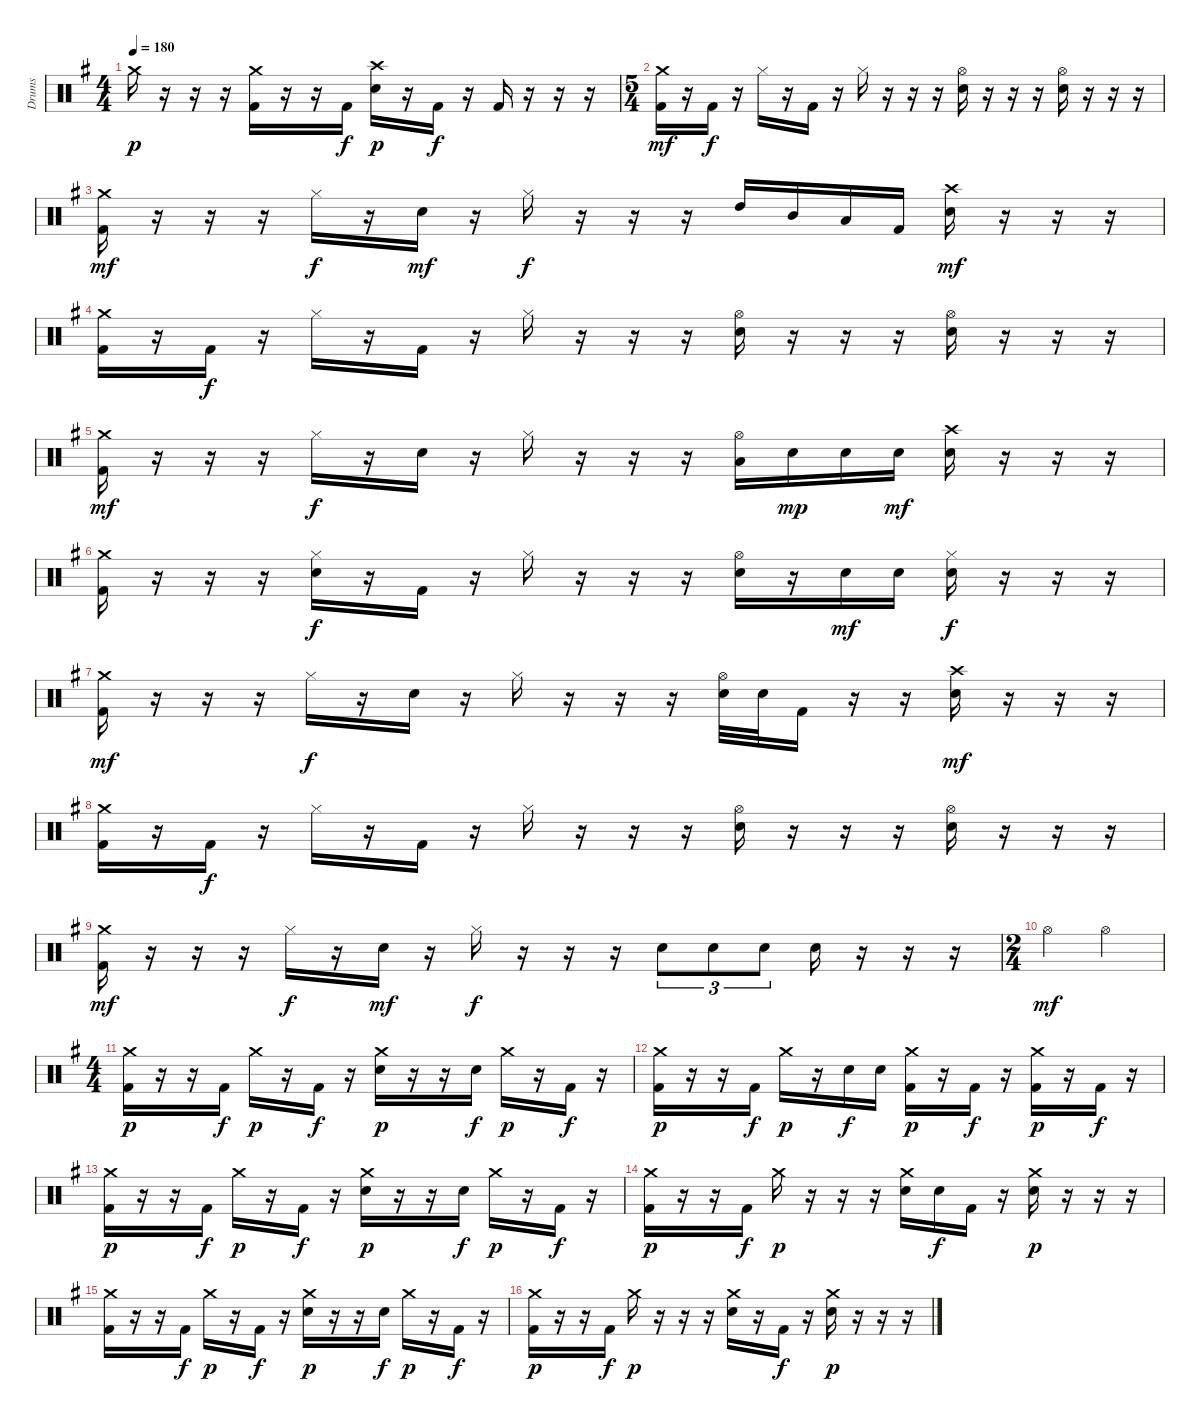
\track ("Drums" "Drums") {instrument percussion}
\staff {score}
\articulation defaults
\ts (4 4)
\tempo 180
\clef neutral
\ks g "Crash medium (hit)".16{dy p}
r.16 r.16 r.16 ("Crash medium (hit)" "Kick (hit) 2").16 r.16 r.16 "Kick (hit) 2".16{dy f} ("Crash high (hit)" "Snare (hit) 2").16{dy p} r.16 "Kick (hit) 2".16{dy f} r.16 "Kick (hit) 2".16 r.16 r.16 r.16 |
\ts (5 4)
("Crash medium (hit)" "Kick (hit) 2").16{dy mf} r.16 "Kick (hit) 2".16{dy f} r.16 "Hi-Hat (closed)".16 r.16 "Kick (hit) 2".16 r.16 "Hi-Hat (closed)".16 r.16 r.16 r.16 ("Hi-Hat (open)" "Snare (hit) 2").16 r.16 r.16 r.16 ("Hi-Hat (open)" "Snare (hit) 2").16 r.16 r.16 r.16 |
("Crash medium (hit)" "Kick (hit) 2").16{dy mf} r.16 r.16 r.16 "Hi-Hat (closed)".16{dy f} r.16 "Snare (hit) 2".16{dy mf} r.16 "Hi-Hat (closed)".16{dy f} r.16 r.16 r.16 "High Tom (hit)".16 "Mid Tom (hit)".16 "Low Tom (hit)".16 "Kick (hit) 2".16 ("Crash high (hit)" "Snare (hit) 2").16{dy mf} r.16 r.16 r.16 |
("Crash medium (hit)" "Kick (hit) 2").16 r.16 "Kick (hit) 2".16{dy f} r.16 "Hi-Hat (closed)".16 r.16 "Kick (hit) 2".16 r.16 "Hi-Hat (closed)".16 r.16 r.16 r.16 ("Hi-Hat (open)" "Snare (hit) 2").16 r.16 r.16 r.16 ("Hi-Hat (open)" "Snare (hit) 2").16 r.16 r.16 r.16 |
("Crash medium (hit)" "Kick (hit) 2").16{dy mf} r.16 r.16 r.16 "Hi-Hat (closed)".16{dy f} r.16 "Snare (hit) 2".16 r.16 "Hi-Hat (closed)".16 r.16 r.16 r.16 ("Hi-Hat (open)" "Low Tom (hit)").16 "Snare (hit) 2".16{dy mp} "Snare (hit) 2".16 "Snare (hit) 2".16{dy mf} ("Crash high (hit)" "Snare (hit) 2").16 r.16 r.16 r.16 |
("Crash medium (hit)" "Kick (hit) 2").16 r.16 r.16 r.16 ("Hi-Hat (closed)" "Snare (hit) 2").16{dy f} r.16 "Kick (hit) 2".16 r.16 "Hi-Hat (closed)".16 r.16 r.16 r.16 ("Hi-Hat (open)" "Snare (hit) 2").16 r.16 "Snare (hit) 2".16{dy mf} "Snare (hit) 2".16 ("Hi-Hat (closed)" "Snare (hit) 2").16{dy f} r.16 r.16 r.16 |
("Crash medium (hit)" "Kick (hit) 2").16{dy mf} r.16 r.16 r.16 "Hi-Hat (closed)".16{dy f} r.16 "Snare (hit) 2".16 r.16 "Hi-Hat (closed)".16 r.16 r.16 r.16 ("Hi-Hat (open)" "Snare (hit) 2").32 "Snare (hit) 2".32 "Kick (hit) 2".16 r.16 r.16 ("Crash high (hit)" "Snare (hit) 2").16{dy mf} r.16 r.16 r.16 |
("Crash medium (hit)" "Kick (hit) 2").16 r.16 "Kick (hit) 2".16{dy f} r.16 "Hi-Hat (closed)".16 r.16 "Kick (hit) 2".16 r.16 "Hi-Hat (closed)".16 r.16 r.16 r.16 ("Hi-Hat (open)" "Snare (hit) 2").16 r.16 r.16 r.16 ("Hi-Hat (open)" "Snare (hit) 2").16 r.16 r.16 r.16 |
("Crash medium (hit)" "Kick (hit) 2").16{dy mf} r.16 r.16 r.16 "Hi-Hat (closed)".16{dy f} r.16 "Snare (hit) 2".16{dy mf} r.16 "Hi-Hat (closed)".16{dy f} r.16 r.16 r.16 "Snare (hit) 2".8{tu (3 2)} "Snare (hit) 2".8{tu (3 2)} "Snare (hit) 2".8{tu (3 2)} "Snare (hit) 2".16 r.16 r.16 r.16 |
\ts (2 4)
"Hi-Hat (open)".4{dy mf} "Hi-Hat (open)".4 |
\ts (4 4)
("Crash medium (hit)" "Kick (hit) 2").16{dy p} r.16 r.16 "Kick (hit) 2".16{dy f} "Crash medium (hit)".16{dy p} r.16 "Kick (hit) 2".16{dy f} r.16 ("Crash medium (hit)" "Snare (hit) 2").16{dy p} r.16 r.16 "Snare (hit) 2".16{dy f} "Crash medium (hit)".16{dy p} r.16 "Kick (hit) 2".16{dy f} r.16 |
("Crash medium (hit)" "Kick (hit) 2").16{dy p} r.16 r.16 "Kick (hit) 2".16{dy f} "Crash medium (hit)".16{dy p} r.16 "Snare (hit) 2".16{dy f} "Snare (hit) 2".16 ("Crash medium (hit)" "Kick (hit) 2").16{dy p} r.16 "Kick (hit) 2".16{dy f} r.16 ("Crash medium (hit)" "Kick (hit) 2").16{dy p} r.16 "Kick (hit) 2".16{dy f} r.16 |
("Crash medium (hit)" "Kick (hit) 2").16{dy p} r.16 r.16 "Kick (hit) 2".16{dy f} "Crash medium (hit)".16{dy p} r.16 "Kick (hit) 2".16{dy f} r.16 ("Crash medium (hit)" "Snare (hit) 2").16{dy p} r.16 r.16 "Snare (hit) 2".16{dy f} "Crash medium (hit)".16{dy p} r.16 "Kick (hit) 2".16{dy f} r.16 |
("Crash medium (hit)" "Kick (hit) 2").16{dy p} r.16 r.16 "Kick (hit) 2".16{dy f} "Crash medium (hit)".16{dy p} r.16 r.16 r.16 ("Crash medium (hit)" "Snare (hit) 2").16 "Snare (hit) 2".16{dy f} "Kick (hit) 2".16 r.16 ("Crash medium (hit)" "Snare (hit) 2").16{dy p} r.16 r.16 r.16 |
("Crash medium (hit)" "Kick (hit) 2").16 r.16 r.16 "Kick (hit) 2".16{dy f} "Crash medium (hit)".16{dy p} r.16 "Kick (hit) 2".16{dy f} r.16 ("Crash medium (hit)" "Snare (hit) 2").16{dy p} r.16 r.16 "Snare (hit) 2".16{dy f} "Crash medium (hit)".16{dy p} r.16 "Kick (hit) 2".16{dy f} r.16 |
("Crash medium (hit)" "Kick (hit) 2").16{dy p} r.16 r.16 "Kick (hit) 2".16{dy f} "Crash medium (hit)".16{dy p} r.16 r.16 r.16 ("Crash medium (hit)" "Snare (hit) 2").16 r.16 "Kick (hit) 2".16{dy f} r.16 ("Crash medium (hit)" "Snare (hit) 2").16{dy p} r.16 r.16 r.16
